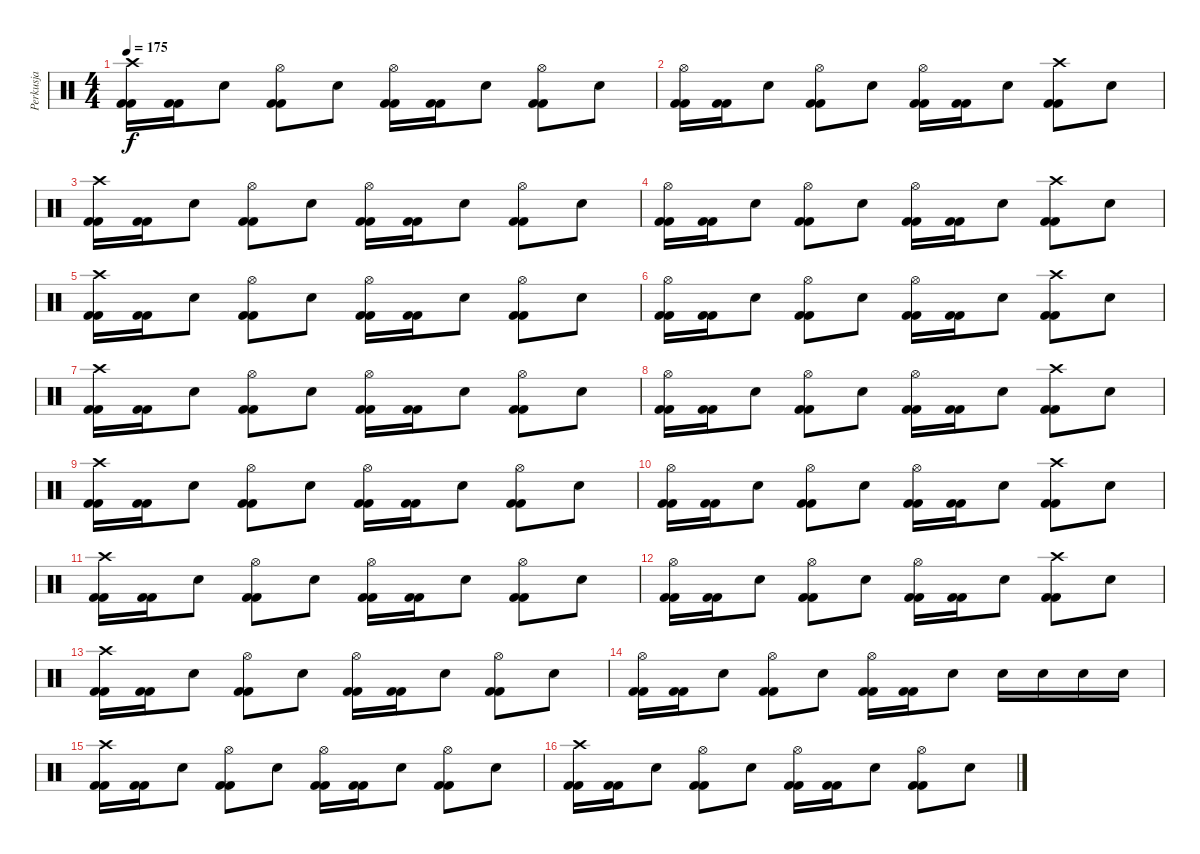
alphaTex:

\track ("Perkusja" "Perkusja") {instrument percussion}
\staff {score}
\articulation defaults
\ts (4 4)
\tempo 175
\clef neutral
\ks c
("Crash high (hit)" "Kick (hit) 2" "Kick (hit) 2").16{dy f} ("Kick (hit) 2" "Kick (hit) 2").16 "Electric Snare (hit)".8 ("Hi-Hat (open)" "Kick (hit) 2" "Kick (hit) 2").8 "Electric Snare (hit)".8 ("Hi-Hat (open)" "Kick (hit) 2" "Kick (hit) 2").16 ("Kick (hit) 2" "Kick (hit) 2").16 "Electric Snare (hit)".8 ("Hi-Hat (open)" "Kick (hit) 2" "Kick (hit) 2").8 "Electric Snare (hit)".8 |
("Hi-Hat (open)" "Kick (hit) 2" "Kick (hit) 2").16 ("Kick (hit) 2" "Kick (hit) 2").16 "Electric Snare (hit)".8 ("Hi-Hat (open)" "Kick (hit) 2" "Kick (hit) 2").8 "Electric Snare (hit)".8 ("Hi-Hat (open)" "Kick (hit) 2" "Kick (hit) 2").16 ("Kick (hit) 2" "Kick (hit) 2").16 "Electric Snare (hit)".8 ("Crash high (hit)" "Kick (hit) 2" "Kick (hit) 2").8 "Electric Snare (hit)".8 |
("Crash high (hit)" "Kick (hit) 2" "Kick (hit) 2").16 ("Kick (hit) 2" "Kick (hit) 2").16 "Electric Snare (hit)".8 ("Hi-Hat (open)" "Kick (hit) 2" "Kick (hit) 2").8 "Electric Snare (hit)".8 ("Hi-Hat (open)" "Kick (hit) 2" "Kick (hit) 2").16 ("Kick (hit) 2" "Kick (hit) 2").16 "Electric Snare (hit)".8 ("Hi-Hat (open)" "Kick (hit) 2" "Kick (hit) 2").8 "Electric Snare (hit)".8 |
("Hi-Hat (open)" "Kick (hit) 2" "Kick (hit) 2").16 ("Kick (hit) 2" "Kick (hit) 2").16 "Electric Snare (hit)".8 ("Hi-Hat (open)" "Kick (hit) 2" "Kick (hit) 2").8 "Electric Snare (hit)".8 ("Hi-Hat (open)" "Kick (hit) 2" "Kick (hit) 2").16 ("Kick (hit) 2" "Kick (hit) 2").16 "Electric Snare (hit)".8 ("Crash high (hit)" "Kick (hit) 2" "Kick (hit) 2").8 "Electric Snare (hit)".8 |
("Crash high (hit)" "Kick (hit) 2" "Kick (hit) 2").16 ("Kick (hit) 2" "Kick (hit) 2").16 "Electric Snare (hit)".8 ("Hi-Hat (open)" "Kick (hit) 2" "Kick (hit) 2").8 "Electric Snare (hit)".8 ("Hi-Hat (open)" "Kick (hit) 2" "Kick (hit) 2").16 ("Kick (hit) 2" "Kick (hit) 2").16 "Electric Snare (hit)".8 ("Hi-Hat (open)" "Kick (hit) 2" "Kick (hit) 2").8 "Electric Snare (hit)".8 |
("Hi-Hat (open)" "Kick (hit) 2" "Kick (hit) 2").16 ("Kick (hit) 2" "Kick (hit) 2").16 "Electric Snare (hit)".8 ("Hi-Hat (open)" "Kick (hit) 2" "Kick (hit) 2").8 "Electric Snare (hit)".8 ("Hi-Hat (open)" "Kick (hit) 2" "Kick (hit) 2").16 ("Kick (hit) 2" "Kick (hit) 2").16 "Electric Snare (hit)".8 ("Crash high (hit)" "Kick (hit) 2" "Kick (hit) 2").8 "Electric Snare (hit)".8 |
("Crash high (hit)" "Kick (hit) 2" "Kick (hit) 2").16 ("Kick (hit) 2" "Kick (hit) 2").16 "Electric Snare (hit)".8 ("Hi-Hat (open)" "Kick (hit) 2" "Kick (hit) 2").8 "Electric Snare (hit)".8 ("Hi-Hat (open)" "Kick (hit) 2" "Kick (hit) 2").16 ("Kick (hit) 2" "Kick (hit) 2").16 "Electric Snare (hit)".8 ("Hi-Hat (open)" "Kick (hit) 2" "Kick (hit) 2").8 "Electric Snare (hit)".8 |
("Hi-Hat (open)" "Kick (hit) 2" "Kick (hit) 2").16 ("Kick (hit) 2" "Kick (hit) 2").16 "Electric Snare (hit)".8 ("Hi-Hat (open)" "Kick (hit) 2" "Kick (hit) 2").8 "Electric Snare (hit)".8 ("Hi-Hat (open)" "Kick (hit) 2" "Kick (hit) 2").16 ("Kick (hit) 2" "Kick (hit) 2").16 "Electric Snare (hit)".8 ("Crash high (hit)" "Kick (hit) 2" "Kick (hit) 2").8 "Electric Snare (hit)".8 |
("Crash high (hit)" "Kick (hit) 2" "Kick (hit) 2").16 ("Kick (hit) 2" "Kick (hit) 2").16 "Electric Snare (hit)".8 ("Hi-Hat (open)" "Kick (hit) 2" "Kick (hit) 2").8 "Electric Snare (hit)".8 ("Hi-Hat (open)" "Kick (hit) 2" "Kick (hit) 2").16 ("Kick (hit) 2" "Kick (hit) 2").16 "Electric Snare (hit)".8 ("Hi-Hat (open)" "Kick (hit) 2" "Kick (hit) 2").8 "Electric Snare (hit)".8 |
("Hi-Hat (open)" "Kick (hit) 2" "Kick (hit) 2").16 ("Kick (hit) 2" "Kick (hit) 2").16 "Electric Snare (hit)".8 ("Hi-Hat (open)" "Kick (hit) 2" "Kick (hit) 2").8 "Electric Snare (hit)".8 ("Hi-Hat (open)" "Kick (hit) 2" "Kick (hit) 2").16 ("Kick (hit) 2" "Kick (hit) 2").16 "Electric Snare (hit)".8 ("Crash high (hit)" "Kick (hit) 2" "Kick (hit) 2").8 "Electric Snare (hit)".8 |
("Crash high (hit)" "Kick (hit) 2" "Kick (hit) 2").16 ("Kick (hit) 2" "Kick (hit) 2").16 "Electric Snare (hit)".8 ("Hi-Hat (open)" "Kick (hit) 2" "Kick (hit) 2").8 "Electric Snare (hit)".8 ("Hi-Hat (open)" "Kick (hit) 2" "Kick (hit) 2").16 ("Kick (hit) 2" "Kick (hit) 2").16 "Electric Snare (hit)".8 ("Hi-Hat (open)" "Kick (hit) 2" "Kick (hit) 2").8 "Electric Snare (hit)".8 |
("Hi-Hat (open)" "Kick (hit) 2" "Kick (hit) 2").16 ("Kick (hit) 2" "Kick (hit) 2").16 "Electric Snare (hit)".8 ("Hi-Hat (open)" "Kick (hit) 2" "Kick (hit) 2").8 "Electric Snare (hit)".8 ("Hi-Hat (open)" "Kick (hit) 2" "Kick (hit) 2").16 ("Kick (hit) 2" "Kick (hit) 2").16 "Electric Snare (hit)".8 ("Crash high (hit)" "Kick (hit) 2" "Kick (hit) 2").8 "Electric Snare (hit)".8 |
("Crash high (hit)" "Kick (hit) 2" "Kick (hit) 2").16 ("Kick (hit) 2" "Kick (hit) 2").16 "Electric Snare (hit)".8 ("Hi-Hat (open)" "Kick (hit) 2" "Kick (hit) 2").8 "Electric Snare (hit)".8 ("Hi-Hat (open)" "Kick (hit) 2" "Kick (hit) 2").16 ("Kick (hit) 2" "Kick (hit) 2").16 "Electric Snare (hit)".8 ("Hi-Hat (open)" "Kick (hit) 2" "Kick (hit) 2").8 "Electric Snare (hit)".8 |
("Hi-Hat (open)" "Kick (hit) 2" "Kick (hit) 2").16 ("Kick (hit) 2" "Kick (hit) 2").16 "Electric Snare (hit)".8 ("Hi-Hat (open)" "Kick (hit) 2" "Kick (hit) 2").8 "Electric Snare (hit)".8 ("Hi-Hat (open)" "Kick (hit) 2" "Kick (hit) 2").16 ("Kick (hit) 2" "Kick (hit) 2").16 "Electric Snare (hit)".8 "Electric Snare (hit)".16 "Electric Snare (hit)".16 "Electric Snare (hit)".16 "Electric Snare (hit)".16 |
("Crash high (hit)" "Kick (hit) 2" "Kick (hit) 2").16 ("Kick (hit) 2" "Kick (hit) 2").16 "Electric Snare (hit)".8 ("Hi-Hat (open)" "Kick (hit) 2" "Kick (hit) 2").8 "Electric Snare (hit)".8 ("Hi-Hat (open)" "Kick (hit) 2" "Kick (hit) 2").16 ("Kick (hit) 2" "Kick (hit) 2").16 "Electric Snare (hit)".8 ("Hi-Hat (open)" "Kick (hit) 2" "Kick (hit) 2").8 "Electric Snare (hit)".8 |
("Crash high (hit)" "Kick (hit) 2" "Kick (hit) 2").16 ("Kick (hit) 2" "Kick (hit) 2").16 "Electric Snare (hit)".8 ("Hi-Hat (open)" "Kick (hit) 2" "Kick (hit) 2").8 "Electric Snare (hit)".8 ("Hi-Hat (open)" "Kick (hit) 2" "Kick (hit) 2").16 ("Kick (hit) 2" "Kick (hit) 2").16 "Electric Snare (hit)".8 ("Hi-Hat (open)" "Kick (hit) 2" "Kick (hit) 2").8 "Electric Snare (hit)".8
